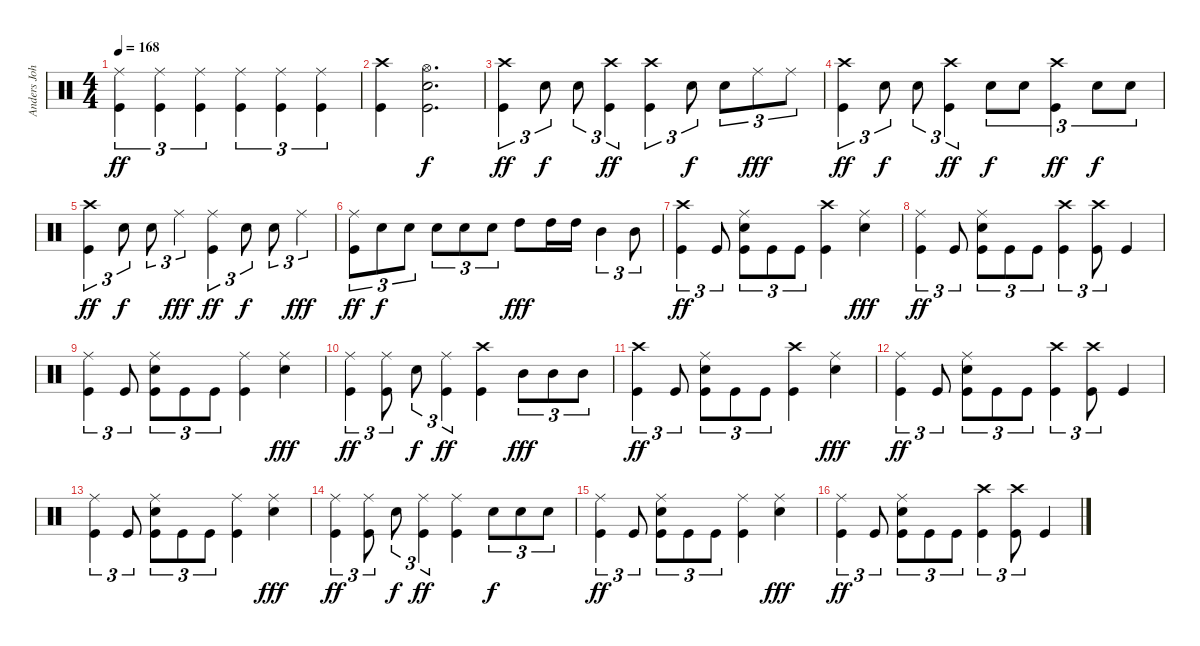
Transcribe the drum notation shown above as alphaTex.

\track ("Anders Johansson (Drums)" "Anders Joh") {instrument percussion}
\staff {score}
\articulation defaults
\ts (4 4)
\tempo 168
\clef neutral
\ks c
("Ride (middle)" "Kick (hit)").4{tu (3 2) dy ff} ("Ride (middle)" "Kick (hit)").4{tu (3 2)} ("Ride (middle)" "Kick (hit)").4{tu (3 2)} ("Ride (middle)" "Kick (hit)").4{tu (3 2)} ("Ride (middle)" "Kick (hit)").4{tu (3 2)} ("Ride (middle)" "Kick (hit)").4{tu (3 2)} |
("Crash high (hit)" "Kick (hit)").4 ("Electric Snare (hit)" "Kick (hit)" "Hi-Hat (open)").2{d dy f} |
("Crash high (hit)" "Kick (hit)").4{tu (3 2) dy ff} "Electric Snare (hit)".8{tu (3 2) dy f} "Electric Snare (hit)".8{tu (3 2)} ("Crash high (hit)" "Kick (hit)").4{tu (3 2) dy ff} ("Crash high (hit)" "Kick (hit)").4{tu (3 2)} "Electric Snare (hit)".8{tu (3 2) dy f} "Electric Snare (hit)".8{tu (3 2)} "Ride (middle)".8{tu (3 2) dy fff} "Ride (middle)".8{tu (3 2)} |
("Crash high (hit)" "Kick (hit)").4{tu (3 2) dy ff} "Electric Snare (hit)".8{tu (3 2) dy f} "Electric Snare (hit)".8{tu (3 2)} ("Crash high (hit)" "Kick (hit)").4{tu (3 2) dy ff} "Electric Snare (hit)".8{tu (3 2) dy f} "Electric Snare (hit)".8{tu (3 2)} ("Crash high (hit)" "Kick (hit)").4{tu (3 2) dy ff} "Electric Snare (hit)".8{tu (3 2) dy f} "Electric Snare (hit)".8{tu (3 2)} |
("Crash high (hit)" "Kick (hit)").4{tu (3 2) dy ff} "Electric Snare (hit)".8{tu (3 2) dy f} "Electric Snare (hit)".8{tu (3 2)} "Ride (middle)".4{tu (3 2) dy fff} ("Ride (middle)" "Kick (hit)").4{tu (3 2) dy ff} "Electric Snare (hit)".8{tu (3 2) dy f} "Electric Snare (hit)".8{tu (3 2)} "Ride (middle)".4{tu (3 2) dy fff} |
("Ride (middle)" "Kick (hit)").8{tu (3 2) dy ff} "Electric Snare (hit)".8{tu (3 2) dy f} "Electric Snare (hit)".8{tu (3 2)} "Electric Snare (hit)".8{tu (3 2)} "Electric Snare (hit)".8{tu (3 2)} "Electric Snare (hit)".8{tu (3 2)} "High Tom (hit)".8{dy fff} "High Tom (hit)".16 "High Tom (hit)".16 "Mid Tom (hit)".4{tu (3 2)} "Mid Tom (hit)".8{tu (3 2)} |
("Crash high (hit)" "Kick (hit)").4{tu (3 2) dy ff} "Kick (hit)".8{tu (3 2)} ("Ride (middle)" "Electric Snare (hit)" "Kick (hit)").8{tu (3 2)} "Kick (hit)".8{tu (3 2)} "Kick (hit)".8{tu (3 2)} ("Crash high (hit)" "Kick (hit)").4 ("Ride (middle)" "Electric Snare (hit)").4{dy fff} |
("Ride (middle)" "Kick (hit)").4{tu (3 2) dy ff} "Kick (hit)".8{tu (3 2)} ("Ride (middle)" "Electric Snare (hit)" "Kick (hit)").8{tu (3 2)} "Kick (hit)".8{tu (3 2)} "Kick (hit)".8{tu (3 2)} ("Crash high (hit)" "Kick (hit)").4{tu (3 2)} ("Crash high (hit)" "Kick (hit)").8{tu (3 2)} "Kick (hit)".4 |
("Ride (middle)" "Kick (hit)").4{tu (3 2)} "Kick (hit)".8{tu (3 2)} ("Ride (middle)" "Electric Snare (hit)" "Kick (hit)").8{tu (3 2)} "Kick (hit)".8{tu (3 2)} "Kick (hit)".8{tu (3 2)} ("Ride (middle)" "Kick (hit)").4 ("Ride (middle)" "Electric Snare (hit)").4{dy fff} |
("Ride (middle)" "Kick (hit)").4{tu (3 2) dy ff} ("Ride (middle)" "Kick (hit)").8{tu (3 2)} "Electric Snare (hit)".8{tu (3 2) dy f} ("Ride (middle)" "Kick (hit)").4{tu (3 2) dy ff} ("Crash high (hit)" "Kick (hit)").4 "Mid Tom (hit)".8{tu (3 2) dy fff} "Mid Tom (hit)".8{tu (3 2)} "Mid Tom (hit)".8{tu (3 2)} |
("Crash high (hit)" "Kick (hit)").4{tu (3 2) dy ff} "Kick (hit)".8{tu (3 2)} ("Ride (middle)" "Electric Snare (hit)" "Kick (hit)").8{tu (3 2)} "Kick (hit)".8{tu (3 2)} "Kick (hit)".8{tu (3 2)} ("Crash high (hit)" "Kick (hit)").4 ("Ride (middle)" "Electric Snare (hit)").4{dy fff} |
("Ride (middle)" "Kick (hit)").4{tu (3 2) dy ff} "Kick (hit)".8{tu (3 2)} ("Ride (middle)" "Electric Snare (hit)" "Kick (hit)").8{tu (3 2)} "Kick (hit)".8{tu (3 2)} "Kick (hit)".8{tu (3 2)} ("Crash high (hit)" "Kick (hit)").4{tu (3 2)} ("Crash high (hit)" "Kick (hit)").8{tu (3 2)} "Kick (hit)".4 |
("Ride (middle)" "Kick (hit)").4{tu (3 2)} "Kick (hit)".8{tu (3 2)} ("Ride (middle)" "Electric Snare (hit)" "Kick (hit)").8{tu (3 2)} "Kick (hit)".8{tu (3 2)} "Kick (hit)".8{tu (3 2)} ("Ride (middle)" "Kick (hit)").4 ("Ride (middle)" "Electric Snare (hit)").4{dy fff} |
("Ride (middle)" "Kick (hit)").4{tu (3 2) dy ff} ("Ride (middle)" "Kick (hit)").8{tu (3 2)} "Electric Snare (hit)".8{tu (3 2) dy f} ("Ride (middle)" "Kick (hit)").4{tu (3 2) dy ff} ("Ride (middle)" "Kick (hit)").4 "Electric Snare (hit)".8{tu (3 2) dy f} "Electric Snare (hit)".8{tu (3 2)} "Electric Snare (hit)".8{tu (3 2)} |
("Ride (middle)" "Kick (hit)").4{tu (3 2) dy ff} "Kick (hit)".8{tu (3 2)} ("Ride (middle)" "Electric Snare (hit)" "Kick (hit)").8{tu (3 2)} "Kick (hit)".8{tu (3 2)} "Kick (hit)".8{tu (3 2)} ("Ride (middle)" "Kick (hit)").4 ("Ride (middle)" "Electric Snare (hit)").4{dy fff} |
("Ride (middle)" "Kick (hit)").4{tu (3 2) dy ff} "Kick (hit)".8{tu (3 2)} ("Ride (middle)" "Electric Snare (hit)" "Kick (hit)").8{tu (3 2)} "Kick (hit)".8{tu (3 2)} "Kick (hit)".8{tu (3 2)} ("Crash high (hit)" "Kick (hit)").4{tu (3 2)} ("Crash high (hit)" "Kick (hit)").8{tu (3 2)} "Kick (hit)".4
